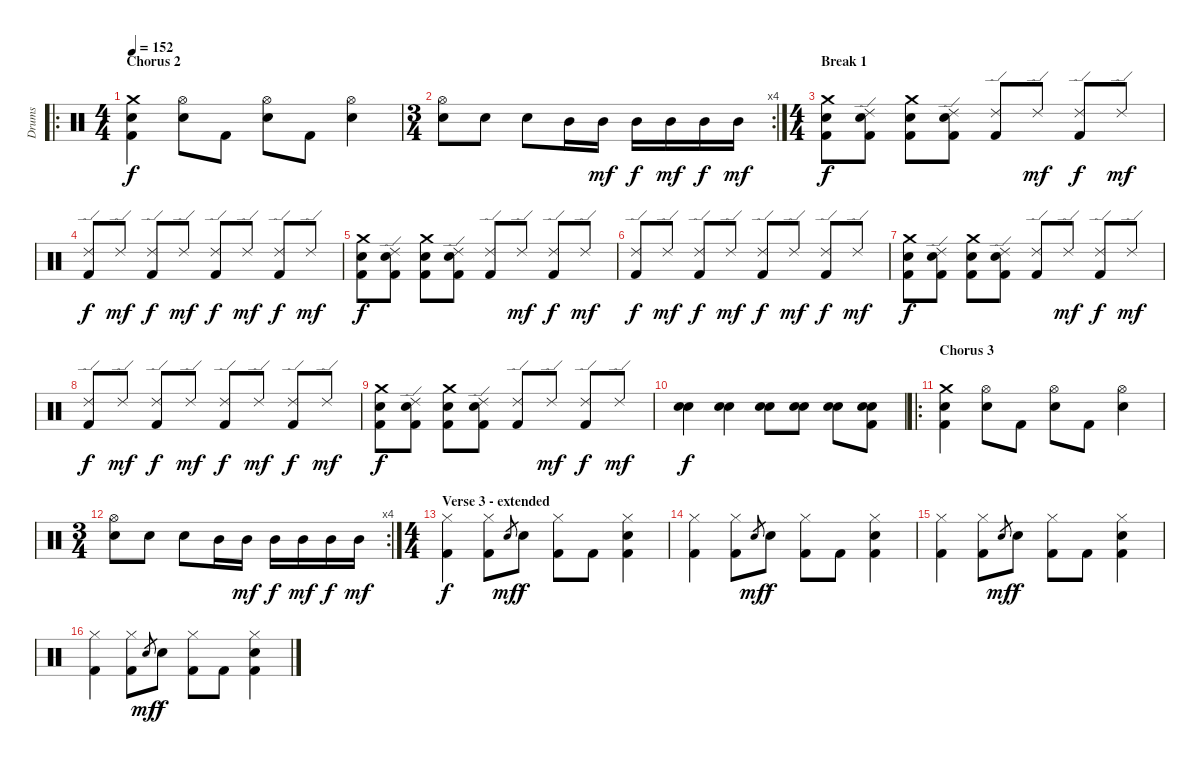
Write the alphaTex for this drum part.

\track ("Drums" "Drums") {instrument percussion}
\staff {score}
\articulation defaults
\ro
\ts (4 4)
\section ("" "Chorus 2")
\tempo 152
\clef neutral
\ks c
("Crash medium (hit)" "Electric Snare (hit)" "Kick (hit) 2").4{dy f} ("Hi-Hat (open)" "Electric Snare (hit)").8 "Kick (hit) 2".8 ("Hi-Hat (open)" "Electric Snare (hit)").8 "Kick (hit) 2".8 ("Hi-Hat (open)" "Electric Snare (hit)").4 |
\rc 4
\ts (3 4)
("Hi-Hat (open)" "Electric Snare (hit)").8 "Electric Snare (hit)".8 "Electric Snare (hit)".8 "Mid Tom (hit)".16 "Mid Tom (hit)".16{dy mf} "Mid Tom (hit)".16{dy f} "Mid Tom (hit)".16{dy mf} "Mid Tom (hit)".16{dy f} "Mid Tom (hit)".16{dy mf} |
\ts (4 4)
\section ("" "Break 1")
("Crash medium (hit)" "Electric Snare (hit)" "Kick (hit) 2").8{dy f} ("Ride (edge) 2" "Electric Snare (hit)" "Kick (hit) 2").8 ("Crash medium (hit)" "Electric Snare (hit)" "Kick (hit) 2").8 ("Ride (edge) 2" "Electric Snare (hit)" "Kick (hit) 2").8 ("Ride (edge) 2" "Kick (hit) 2").8 "Ride (edge) 2".8{dy mf} ("Ride (edge) 2" "Kick (hit) 2").8{dy f} "Ride (edge) 2".8{dy mf} |
("Ride (edge) 2" "Kick (hit) 2").8{dy f} "Ride (edge) 2".8{dy mf} ("Ride (edge) 2" "Kick (hit) 2").8{dy f} "Ride (edge) 2".8{dy mf} ("Ride (edge) 2" "Kick (hit) 2").8{dy f} "Ride (edge) 2".8{dy mf} ("Ride (edge) 2" "Kick (hit) 2").8{dy f} "Ride (edge) 2".8{dy mf} |
("Crash medium (hit)" "Electric Snare (hit)" "Kick (hit) 2").8{dy f} ("Ride (edge) 2" "Electric Snare (hit)" "Kick (hit) 2").8 ("Crash medium (hit)" "Electric Snare (hit)" "Kick (hit) 2").8 ("Ride (edge) 2" "Electric Snare (hit)" "Kick (hit) 2").8 ("Ride (edge) 2" "Kick (hit) 2").8 "Ride (edge) 2".8{dy mf} ("Ride (edge) 2" "Kick (hit) 2").8{dy f} "Ride (edge) 2".8{dy mf} |
("Ride (edge) 2" "Kick (hit) 2").8{dy f} "Ride (edge) 2".8{dy mf} ("Ride (edge) 2" "Kick (hit) 2").8{dy f} "Ride (edge) 2".8{dy mf} ("Ride (edge) 2" "Kick (hit) 2").8{dy f} "Ride (edge) 2".8{dy mf} ("Ride (edge) 2" "Kick (hit) 2").8{dy f} "Ride (edge) 2".8{dy mf} |
("Crash medium (hit)" "Electric Snare (hit)" "Kick (hit) 2").8{dy f} ("Ride (edge) 2" "Electric Snare (hit)" "Kick (hit) 2").8 ("Crash medium (hit)" "Electric Snare (hit)" "Kick (hit) 2").8 ("Ride (edge) 2" "Electric Snare (hit)" "Kick (hit) 2").8 ("Ride (edge) 2" "Kick (hit) 2").8 "Ride (edge) 2".8{dy mf} ("Ride (edge) 2" "Kick (hit) 2").8{dy f} "Ride (edge) 2".8{dy mf} |
("Ride (edge) 2" "Kick (hit) 2").8{dy f} "Ride (edge) 2".8{dy mf} ("Ride (edge) 2" "Kick (hit) 2").8{dy f} "Ride (edge) 2".8{dy mf} ("Ride (edge) 2" "Kick (hit) 2").8{dy f} "Ride (edge) 2".8{dy mf} ("Ride (edge) 2" "Kick (hit) 2").8{dy f} "Ride (edge) 2".8{dy mf} |
("Crash medium (hit)" "Electric Snare (hit)" "Kick (hit) 2").8{dy f} ("Ride (edge) 2" "Electric Snare (hit)" "Kick (hit) 2").8 ("Crash medium (hit)" "Electric Snare (hit)" "Kick (hit) 2").8 ("Ride (edge) 2" "Electric Snare (hit)" "Kick (hit) 2").8 ("Ride (edge) 2" "Kick (hit) 2").8 "Ride (edge) 2".8{dy mf} ("Ride (edge) 2" "Kick (hit) 2").8{dy f} "Ride (edge) 2".8{dy mf} |
("Snare (hit) 2" "Electric Snare (hit)").4{dy f} ("Snare (hit) 2" "Electric Snare (hit)").4 ("Snare (hit) 2" "Electric Snare (hit)").8 ("Snare (hit) 2" "Electric Snare (hit)").8 ("Snare (hit) 2" "Electric Snare (hit)").8 ("Snare (hit) 2" "Electric Snare (hit)" "Kick (hit) 2").8 |
\ro
\section ("" "Chorus 3")
("Crash medium (hit)" "Electric Snare (hit)" "Kick (hit) 2").4 ("Hi-Hat (open)" "Electric Snare (hit)").8 "Kick (hit) 2".8 ("Hi-Hat (open)" "Electric Snare (hit)").8 "Kick (hit) 2".8 ("Hi-Hat (open)" "Electric Snare (hit)").4 |
\rc 4
\ts (3 4)
("Hi-Hat (open)" "Electric Snare (hit)").8 "Electric Snare (hit)".8 "Electric Snare (hit)".8 "Mid Tom (hit)".16 "Mid Tom (hit)".16{dy mf} "Mid Tom (hit)".16{dy f} "Mid Tom (hit)".16{dy mf} "Mid Tom (hit)".16{dy f} "Mid Tom (hit)".16{dy mf} |
\ts (4 4)
\section ("" "Verse 3 - extended")
("Hi-Hat (closed)" "Kick (hit) 2").4{dy f} ("Hi-Hat (closed)" "Kick (hit) 2").8 "Electric Snare (hit)".8{gr dy mf} "Electric Snare (hit)".8{dy f} ("Hi-Hat (closed)" "Kick (hit) 2").8 "Kick (hit) 2".8 ("Hi-Hat (closed)" "Electric Snare (hit)" "Kick (hit) 2").4 |
("Hi-Hat (closed)" "Kick (hit) 2").4 ("Hi-Hat (closed)" "Kick (hit) 2").8 "Electric Snare (hit)".8{gr dy mf} "Electric Snare (hit)".8{dy f} ("Hi-Hat (closed)" "Kick (hit) 2").8 "Kick (hit) 2".8 ("Hi-Hat (closed)" "Electric Snare (hit)" "Kick (hit) 2").4 |
("Hi-Hat (closed)" "Kick (hit) 2").4 ("Hi-Hat (closed)" "Kick (hit) 2").8 "Electric Snare (hit)".8{gr dy mf} "Electric Snare (hit)".8{dy f} ("Hi-Hat (closed)" "Kick (hit) 2").8 "Kick (hit) 2".8 ("Hi-Hat (closed)" "Electric Snare (hit)" "Kick (hit) 2").4 |
("Hi-Hat (closed)" "Kick (hit) 2").4 ("Hi-Hat (closed)" "Kick (hit) 2").8 "Electric Snare (hit)".8{gr dy mf} "Electric Snare (hit)".8{dy f} ("Hi-Hat (closed)" "Kick (hit) 2").8 "Kick (hit) 2".8 ("Hi-Hat (closed)" "Electric Snare (hit)" "Kick (hit) 2").4
